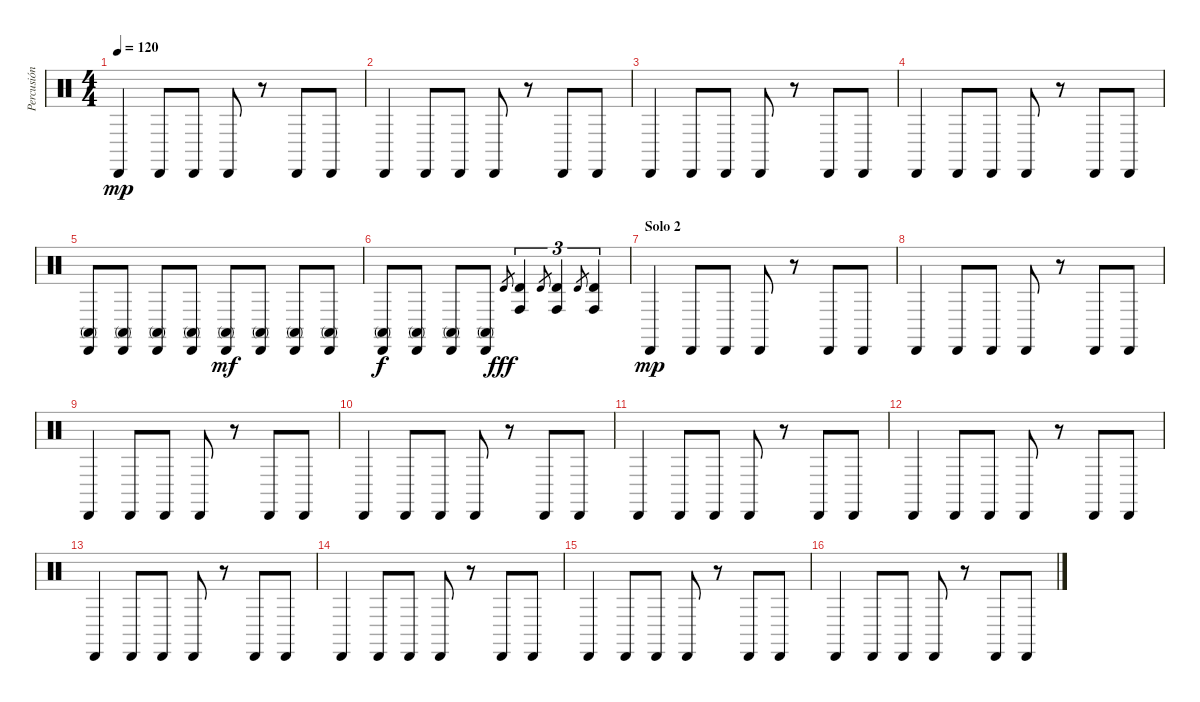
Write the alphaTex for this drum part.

\track ("Percusión" "Percusión") {instrument percussion}
\staff {score}
\articulation defaults
\ts (4 4)
\tempo 120
\clef neutral
\ks c "Cabasa (hit)".4{dy mp} "Cabasa (hit)".8 "Cabasa (hit)".8 "Cabasa (hit)".8
r.8 "Cabasa (hit)".8 "Cabasa (hit)".8 |
"Cabasa (hit)".4 "Cabasa (hit)".8 "Cabasa (hit)".8 "Cabasa (hit)".8 r.8 "Cabasa (hit)".8 "Cabasa (hit)".8 |
"Cabasa (hit)".4 "Cabasa (hit)".8 "Cabasa (hit)".8 "Cabasa (hit)".8 r.8 "Cabasa (hit)".8 "Cabasa (hit)".8 |
"Cabasa (hit)".4 "Cabasa (hit)".8 "Cabasa (hit)".8 "Cabasa (hit)".8 r.8 "Cabasa (hit)".8 "Cabasa (hit)".8 |
("Cabasa (hit)" "Conga high (mute)").8 ("Cabasa (hit)" "Conga high (mute)").8 ("Cabasa (hit)" "Conga high (mute)").8 ("Cabasa (hit)" "Conga high (mute)").8 ("Cabasa (hit)" "Conga high (mute)").8{dy mf} ("Cabasa (hit)" "Conga high (mute)").8 ("Cabasa (hit)" "Conga high (mute)").8 ("Cabasa (hit)" "Conga high (mute)").8 |
("Cabasa (hit)" "Conga high (mute)").8{dy f} ("Cabasa (hit)" "Conga high (mute)").8 ("Cabasa (hit)" "Conga high (mute)").8 ("Cabasa (hit)" "Conga high (mute)").8 "Timbale high (hit)".8{gr dy fff} ("Timbale high (hit)" "Conga high (hit)").4{tu (3 2)} "Timbale high (hit)".8{gr} ("Timbale high (hit)" "Conga high (hit)").4{tu (3 2)} "Timbale high (hit)".8{gr} ("Timbale high (hit)" "Conga high (hit)").4{tu (3 2)} |
\section ("" "Solo 2")
"Cabasa (hit)".4{dy mp} "Cabasa (hit)".8 "Cabasa (hit)".8 "Cabasa (hit)".8 r.8 "Cabasa (hit)".8 "Cabasa (hit)".8 |
"Cabasa (hit)".4 "Cabasa (hit)".8 "Cabasa (hit)".8 "Cabasa (hit)".8 r.8 "Cabasa (hit)".8 "Cabasa (hit)".8 |
"Cabasa (hit)".4 "Cabasa (hit)".8 "Cabasa (hit)".8 "Cabasa (hit)".8 r.8 "Cabasa (hit)".8 "Cabasa (hit)".8 |
"Cabasa (hit)".4 "Cabasa (hit)".8 "Cabasa (hit)".8 "Cabasa (hit)".8 r.8 "Cabasa (hit)".8 "Cabasa (hit)".8 |
"Cabasa (hit)".4 "Cabasa (hit)".8 "Cabasa (hit)".8 "Cabasa (hit)".8 r.8 "Cabasa (hit)".8 "Cabasa (hit)".8 |
"Cabasa (hit)".4 "Cabasa (hit)".8 "Cabasa (hit)".8 "Cabasa (hit)".8 r.8 "Cabasa (hit)".8 "Cabasa (hit)".8 |
"Cabasa (hit)".4 "Cabasa (hit)".8 "Cabasa (hit)".8 "Cabasa (hit)".8 r.8 "Cabasa (hit)".8 "Cabasa (hit)".8 |
"Cabasa (hit)".4 "Cabasa (hit)".8 "Cabasa (hit)".8 "Cabasa (hit)".8 r.8 "Cabasa (hit)".8 "Cabasa (hit)".8 |
"Cabasa (hit)".4 "Cabasa (hit)".8 "Cabasa (hit)".8 "Cabasa (hit)".8 r.8 "Cabasa (hit)".8 "Cabasa (hit)".8 |
"Cabasa (hit)".4 "Cabasa (hit)".8 "Cabasa (hit)".8 "Cabasa (hit)".8 r.8 "Cabasa (hit)".8 "Cabasa (hit)".8
